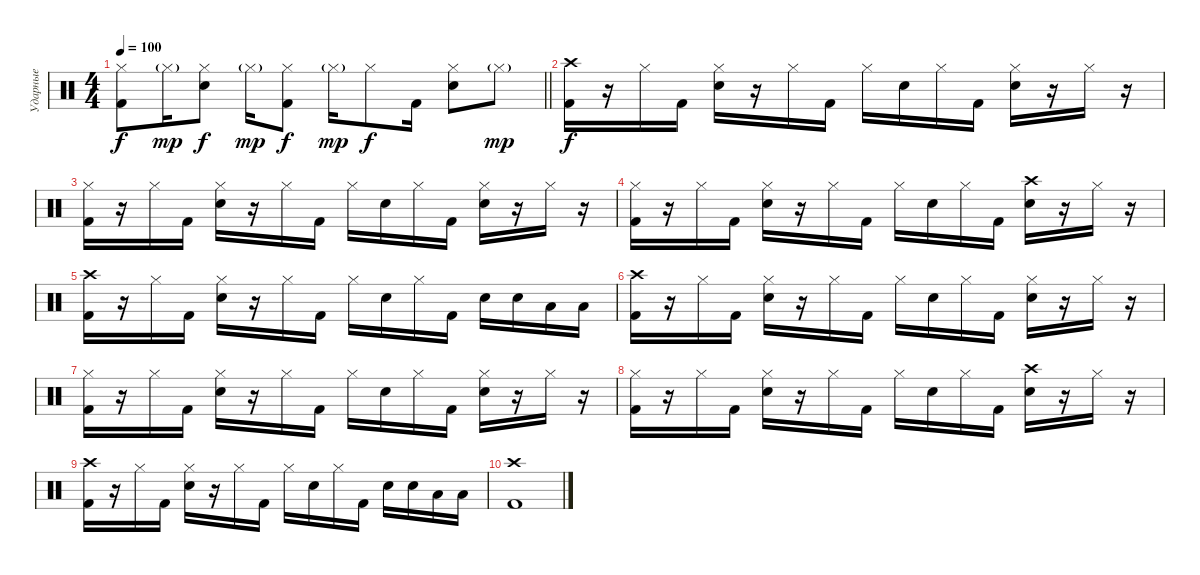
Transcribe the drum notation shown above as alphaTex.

\track ("Ударные" "Ударные") {instrument percussion}
\staff {score}
\articulation defaults
\ts (4 4)
\tempo 100
\clef neutral
\barLineRight lightlight
\ks c
("Kick (hit) 2" "Hi-Hat (closed)").8{dy f} "Hi-Hat (closed)"{g}.16{dy mp} ("Snare (hit) 2" "Hi-Hat (closed)").8{dy f} "Hi-Hat (closed)"{g}.16{dy mp} ("Kick (hit) 2" "Hi-Hat (closed)").8{dy f} "Hi-Hat (closed)"{g}.16{dy mp} "Hi-Hat (closed)".8{dy f} "Kick (hit) 2".16 ("Snare (hit) 2" "Hi-Hat (closed)").8 "Hi-Hat (closed)"{g}.8{dy mp} |
("Kick (hit) 2" "Crash high (hit)").16{dy f} r.16 "Hi-Hat (closed)".16 "Kick (hit) 2".16 ("Snare (hit) 2" "Hi-Hat (closed)").16 r.16 "Hi-Hat (closed)".16 "Kick (hit) 2".16 "Hi-Hat (closed)".16 "Snare (hit) 2".16 "Hi-Hat (closed)".16 "Kick (hit) 2".16 ("Snare (hit) 2" "Hi-Hat (closed)").16 r.16 "Hi-Hat (closed)".16 r.16 |
("Kick (hit) 2" "Hi-Hat (closed)").16 r.16 "Hi-Hat (closed)".16 "Kick (hit) 2".16 ("Snare (hit) 2" "Hi-Hat (closed)").16 r.16 "Hi-Hat (closed)".16 "Kick (hit) 2".16 "Hi-Hat (closed)".16 "Snare (hit) 2".16 "Hi-Hat (closed)".16 "Kick (hit) 2".16 ("Snare (hit) 2" "Hi-Hat (closed)").16 r.16 "Hi-Hat (closed)".16 r.16 |
("Kick (hit) 2" "Hi-Hat (closed)").16 r.16 "Hi-Hat (closed)".16 "Kick (hit) 2".16 ("Snare (hit) 2" "Hi-Hat (closed)").16 r.16 "Hi-Hat (closed)".16 "Kick (hit) 2".16 "Hi-Hat (closed)".16 "Snare (hit) 2".16 "Hi-Hat (closed)".16 "Kick (hit) 2".16 ("Snare (hit) 2" "Crash high (hit)").16 r.16 "Hi-Hat (closed)".16 r.16 |
("Kick (hit) 2" "Crash high (hit)").16 r.16 "Hi-Hat (closed)".16 "Kick (hit) 2".16 ("Snare (hit) 2" "Hi-Hat (closed)").16 r.16 "Hi-Hat (closed)".16 "Kick (hit) 2".16 "Hi-Hat (closed)".16 "Snare (hit) 2".16 "Hi-Hat (closed)".16 "Kick (hit) 2".16 "Snare (hit) 2".16 "Snare (hit) 2".16 "Low Tom (hit)".16 "Low Tom (hit)".16 |
("Kick (hit) 2" "Crash high (hit)").16 r.16 "Hi-Hat (closed)".16 "Kick (hit) 2".16 ("Snare (hit) 2" "Hi-Hat (closed)").16 r.16 "Hi-Hat (closed)".16 "Kick (hit) 2".16 "Hi-Hat (closed)".16 "Snare (hit) 2".16 "Hi-Hat (closed)".16 "Kick (hit) 2".16 ("Snare (hit) 2" "Hi-Hat (closed)").16 r.16 "Hi-Hat (closed)".16 r.16 |
("Kick (hit) 2" "Hi-Hat (closed)").16 r.16 "Hi-Hat (closed)".16 "Kick (hit) 2".16 ("Snare (hit) 2" "Hi-Hat (closed)").16 r.16 "Hi-Hat (closed)".16 "Kick (hit) 2".16 "Hi-Hat (closed)".16 "Snare (hit) 2".16 "Hi-Hat (closed)".16 "Kick (hit) 2".16 ("Snare (hit) 2" "Hi-Hat (closed)").16 r.16 "Hi-Hat (closed)".16 r.16 |
("Kick (hit) 2" "Hi-Hat (closed)").16 r.16 "Hi-Hat (closed)".16 "Kick (hit) 2".16 ("Snare (hit) 2" "Hi-Hat (closed)").16 r.16 "Hi-Hat (closed)".16 "Kick (hit) 2".16 "Hi-Hat (closed)".16 "Snare (hit) 2".16 "Hi-Hat (closed)".16 "Kick (hit) 2".16 ("Snare (hit) 2" "Crash high (hit)").16 r.16 "Hi-Hat (closed)".16 r.16 |
("Kick (hit) 2" "Crash high (hit)").16 r.16 "Hi-Hat (closed)".16 "Kick (hit) 2".16 ("Snare (hit) 2" "Hi-Hat (closed)").16 r.16 "Hi-Hat (closed)".16 "Kick (hit) 2".16 "Hi-Hat (closed)".16 "Snare (hit) 2".16 "Hi-Hat (closed)".16 "Kick (hit) 2".16 "Snare (hit) 2".16 "Snare (hit) 2".16 "Low Tom (hit)".16 "Low Tom (hit)".16 |
("Kick (hit) 2" "Crash high (hit)").1
